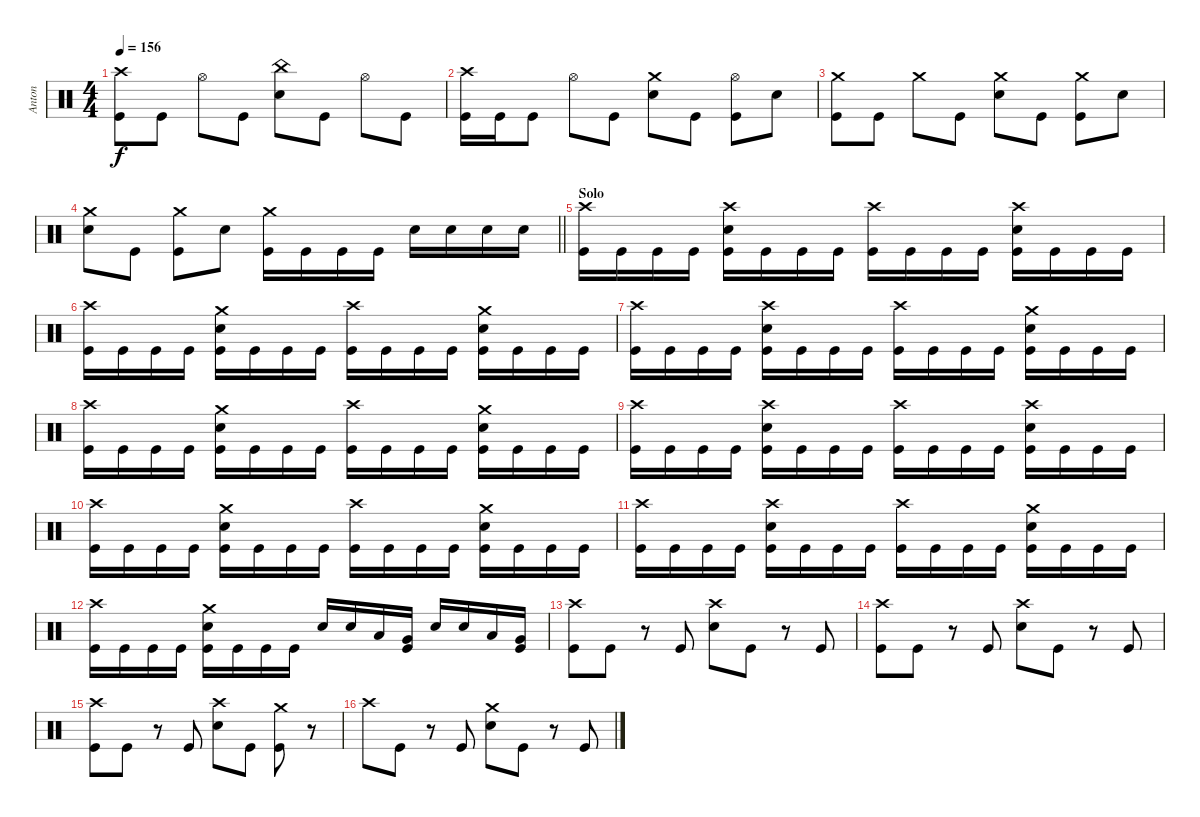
\track ("Anton " "Anton ") {instrument percussion}
\staff
\articulation defaults
\ts (4 4)
\tempo 156
\clef neutral
\ks c
("Crash high (hit)" "Kick (hit)").8{dy f} "Kick (hit)".8 "Hi-Hat (open)".8 "Kick (hit)".8 ("China (hit)" "Snare (hit) 2").8 "Kick (hit)".8 "Hi-Hat (open)".8 "Kick (hit)".8 |
("Crash high (hit)" "Kick (hit)").16 "Kick (hit)".16 "Kick (hit)".8 "Hi-Hat (open)".8 "Kick (hit)".8 ("Crash medium (hit)" "Snare (hit) 2").8 "Kick (hit)".8 ("Hi-Hat (open)" "Kick (hit)").8 "Snare (hit) 2".8 |
("Crash medium (hit)" "Kick (hit)").8 "Kick (hit)".8 "Crash medium (hit)".8 "Kick (hit)".8 ("Crash medium (hit)" "Snare (hit) 2").8 "Kick (hit)".8 ("Crash medium (hit)" "Kick (hit)").8 "Snare (hit) 2".8 |
\barLineRight lightlight
("Crash medium (hit)" "Snare (hit) 2").8 "Kick (hit)".8 ("Crash medium (hit)" "Kick (hit)").8 "Snare (hit) 2".8 ("Crash medium (hit)" "Kick (hit)").16 "Kick (hit)".16 "Kick (hit)".16 "Kick (hit)".16 "Snare (hit) 2".16 "Snare (hit) 2".16 "Snare (hit) 2".16 "Snare (hit) 2".16 |
\section ("" "Solo")
("Kick (hit)" "Crash high (hit)").16 "Kick (hit)".16 "Kick (hit)".16 "Kick (hit)".16 ("Kick (hit)" "Crash high (hit)" "Snare (hit) 2").16 "Kick (hit)".16 "Kick (hit)".16 "Kick (hit)".16 ("Kick (hit)" "Crash high (hit)").16 "Kick (hit)".16 "Kick (hit)".16 "Kick (hit)".16 ("Kick (hit)" "Crash high (hit)" "Snare (hit) 2").16 "Kick (hit)".16 "Kick (hit)".16 "Kick (hit)".16 |
("Kick (hit)" "Crash high (hit)").16 "Kick (hit)".16 "Kick (hit)".16 "Kick (hit)".16 ("Kick (hit)" "Crash medium (hit)" "Snare (hit) 2").16 "Kick (hit)".16 "Kick (hit)".16 "Kick (hit)".16 ("Kick (hit)" "Crash high (hit)").16 "Kick (hit)".16 "Kick (hit)".16 "Kick (hit)".16 ("Kick (hit)" "Crash medium (hit)" "Snare (hit) 2").16 "Kick (hit)".16 "Kick (hit)".16 "Kick (hit)".16 |
("Kick (hit)" "Crash high (hit)").16 "Kick (hit)".16 "Kick (hit)".16 "Kick (hit)".16 ("Kick (hit)" "Crash high (hit)" "Snare (hit) 2").16 "Kick (hit)".16 "Kick (hit)".16 "Kick (hit)".16 ("Kick (hit)" "Crash high (hit)").16 "Kick (hit)".16 "Kick (hit)".16 "Kick (hit)".16 ("Kick (hit)" "Snare (hit) 2" "Crash medium (hit)").16 "Kick (hit)".16 "Kick (hit)".16 "Kick (hit)".16 |
("Kick (hit)" "Crash high (hit)").16 "Kick (hit)".16 "Kick (hit)".16 "Kick (hit)".16 ("Kick (hit)" "Crash medium (hit)" "Snare (hit) 2").16 "Kick (hit)".16 "Kick (hit)".16 "Kick (hit)".16 ("Kick (hit)" "Crash high (hit)").16 "Kick (hit)".16 "Kick (hit)".16 "Kick (hit)".16 ("Kick (hit)" "Crash medium (hit)" "Snare (hit) 2").16 "Kick (hit)".16 "Kick (hit)".16 "Kick (hit)".16 |
("Kick (hit)" "Crash high (hit)").16 "Kick (hit)".16 "Kick (hit)".16 "Kick (hit)".16 ("Kick (hit)" "Crash high (hit)" "Snare (hit) 2").16 "Kick (hit)".16 "Kick (hit)".16 "Kick (hit)".16 ("Kick (hit)" "Crash high (hit)").16 "Kick (hit)".16 "Kick (hit)".16 "Kick (hit)".16 ("Kick (hit)" "Crash high (hit)" "Snare (hit) 2").16 "Kick (hit)".16 "Kick (hit)".16 "Kick (hit)".16 |
("Kick (hit)" "Crash high (hit)").16 "Kick (hit)".16 "Kick (hit)".16 "Kick (hit)".16 ("Kick (hit)" "Crash medium (hit)" "Snare (hit) 2").16 "Kick (hit)".16 "Kick (hit)".16 "Kick (hit)".16 ("Kick (hit)" "Crash high (hit)").16 "Kick (hit)".16 "Kick (hit)".16 "Kick (hit)".16 ("Kick (hit)" "Crash medium (hit)" "Snare (hit) 2").16 "Kick (hit)".16 "Kick (hit)".16 "Kick (hit)".16 |
("Kick (hit)" "Crash high (hit)").16 "Kick (hit)".16 "Kick (hit)".16 "Kick (hit)".16 ("Kick (hit)" "Crash high (hit)" "Snare (hit) 2").16 "Kick (hit)".16 "Kick (hit)".16 "Kick (hit)".16 ("Kick (hit)" "Crash high (hit)").16 "Kick (hit)".16 "Kick (hit)".16 "Kick (hit)".16 ("Kick (hit)" "Snare (hit) 2" "Crash medium (hit)").16 "Kick (hit)".16 "Kick (hit)".16 "Kick (hit)".16 |
("Kick (hit)" "Crash high (hit)").16 "Kick (hit)".16 "Kick (hit)".16 "Kick (hit)".16 ("Kick (hit)" "Crash medium (hit)" "Snare (hit) 2").16 "Kick (hit)".16 "Kick (hit)".16 "Kick (hit)".16 "Snare (hit) 2".16 "Snare (hit) 2".16 "Low Tom (hit)".16 ("Kick (hit)" "Very Low Tom (hit)").16 "Snare (hit) 2".16 "Snare (hit) 2".16 "Low Tom (hit)".16 ("Very Low Tom (hit)" "Kick (hit)").16 |
("Crash high (hit)" "Kick (hit)").8 "Kick (hit)".8 r.8 "Kick (hit)".8 ("Crash high (hit)" "Snare (hit) 2").8 "Kick (hit)".8 r.8 "Kick (hit)".8 |
("Crash high (hit)" "Kick (hit)").8 "Kick (hit)".8 r.8 "Kick (hit)".8 ("Crash high (hit)" "Snare (hit) 2").8 "Kick (hit)".8 r.8 "Kick (hit)".8 |
("Crash high (hit)" "Kick (hit)").8 "Kick (hit)".8 r.8 "Kick (hit)".8 ("Crash high (hit)" "Snare (hit) 2").8 "Kick (hit)".8 ("Crash medium (hit)" "Kick (hit)").8 r.8 |
"Crash high (hit)".8 "Kick (hit)".8 r.8 "Kick (hit)".8 ("Snare (hit) 2" "Crash medium (hit)").8 "Kick (hit)".8 r.8 "Kick (hit)".8
